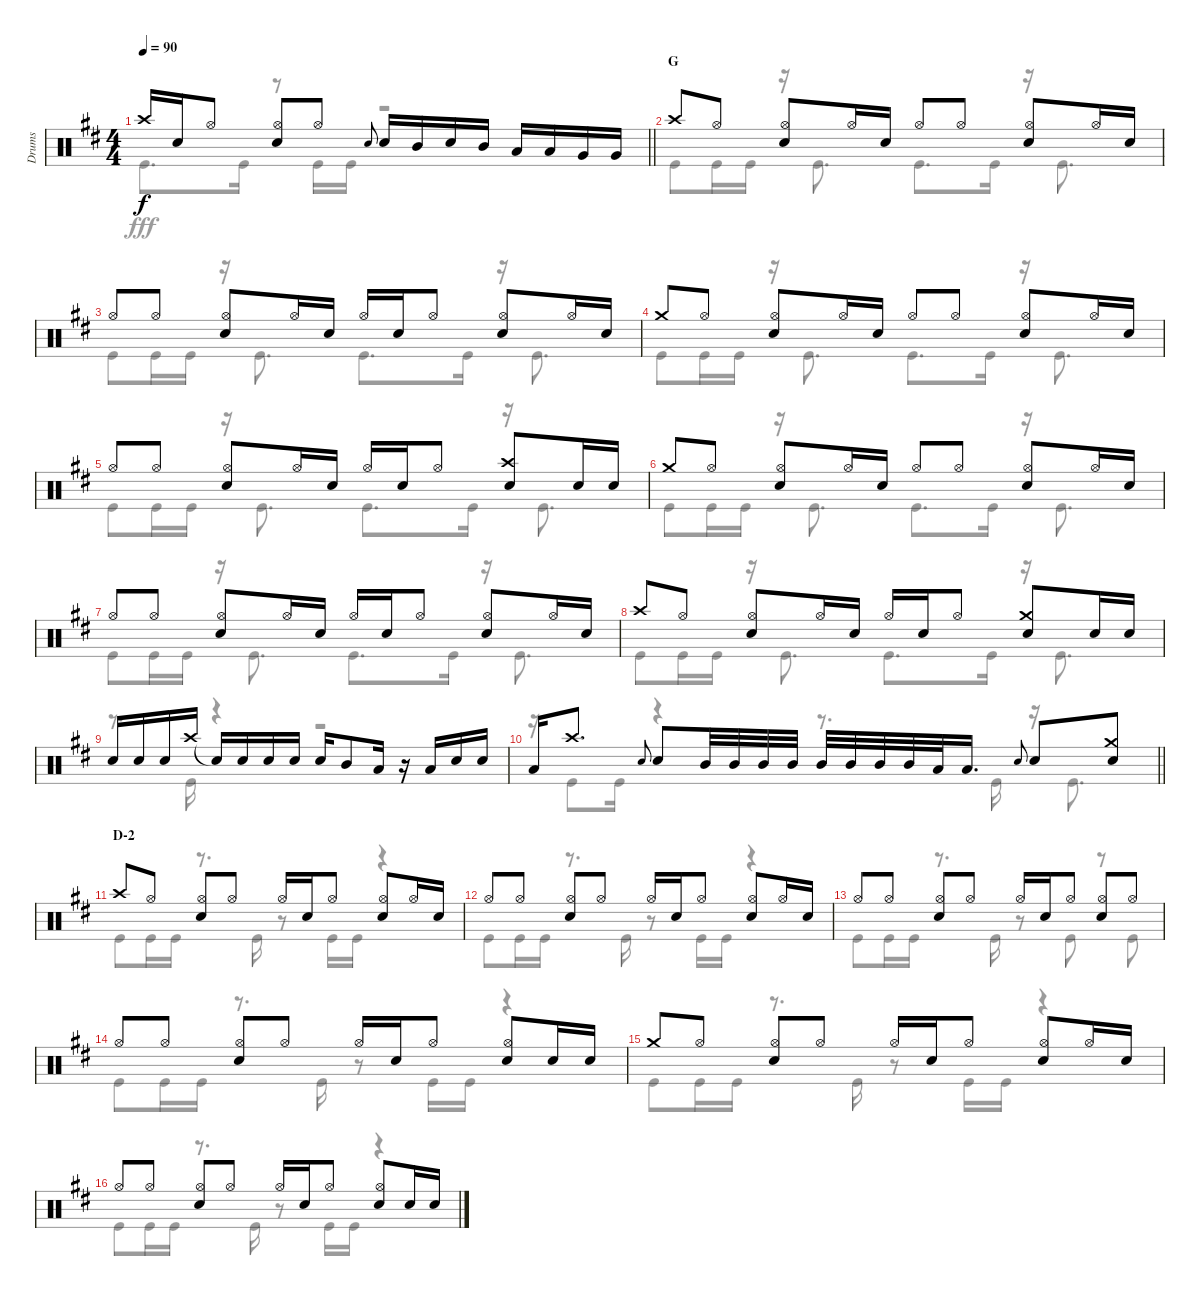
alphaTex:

\track ("Drums" "Drums") {instrument percussion}
\staff {score}
\articulation defaults
\voice
\ts (4 4)
\tempo 90
\clef neutral
\barLineRight lightlight
\ks d "Crash high (hit)".16{dy f} "Snare (hit) 2".16 "Hi-Hat (open)".8
("Hi-Hat (open)" "Snare (hit) 2").8 "Hi-Hat (open)".8 "Snare (hit) 2".8{gr onbeat} "Snare (hit) 2".16 "Mid Tom (hit)".16 "Snare (hit) 2".16 "Mid Tom (hit)".16 "Low Tom (hit)".16 "Low Tom (hit)".16 "Very Low Tom (hit)".16 "Very Low Tom (hit)".16 |
\section ("" "G")
"Crash high (hit)".8 "Hi-Hat (open)".8 ("Hi-Hat (open)" "Snare (hit) 2").8 "Hi-Hat (open)".16 "Snare (hit) 2".16 "Hi-Hat (open)".8 "Hi-Hat (open)".8 ("Hi-Hat (open)" "Snare (hit) 2").8 "Hi-Hat (open)".16 "Snare (hit) 2".16 |
"Hi-Hat (open)".8 "Hi-Hat (open)".8 ("Hi-Hat (open)" "Snare (hit) 2").8 "Hi-Hat (open)".16 "Snare (hit) 2".16 "Hi-Hat (open)".16 "Snare (hit) 2".16 "Hi-Hat (open)".8 ("Hi-Hat (open)" "Snare (hit) 2").8 "Hi-Hat (open)".16 "Snare (hit) 2".16 |
"Crash medium (hit)".8 "Hi-Hat (open)".8 ("Hi-Hat (open)" "Snare (hit) 2").8 "Hi-Hat (open)".16 "Snare (hit) 2".16 "Hi-Hat (open)".8 "Hi-Hat (open)".8 ("Hi-Hat (open)" "Snare (hit) 2").8 "Hi-Hat (open)".16 "Snare (hit) 2".16 |
"Hi-Hat (open)".8 "Hi-Hat (open)".8 ("Hi-Hat (open)" "Snare (hit) 2").8 "Hi-Hat (open)".16 "Snare (hit) 2".16 "Hi-Hat (open)".16 "Snare (hit) 2".16 "Hi-Hat (open)".8 ("Crash high (hit)" "Snare (hit) 2").8 "Snare (hit) 2".16 "Snare (hit) 2".16 |
"Crash medium (hit)".8 "Hi-Hat (open)".8 ("Hi-Hat (open)" "Snare (hit) 2").8 "Hi-Hat (open)".16 "Snare (hit) 2".16 "Hi-Hat (open)".8 "Hi-Hat (open)".8 ("Hi-Hat (open)" "Snare (hit) 2").8 "Hi-Hat (open)".16 "Snare (hit) 2".16 |
"Hi-Hat (open)".8 "Hi-Hat (open)".8 ("Hi-Hat (open)" "Snare (hit) 2").8 "Hi-Hat (open)".16 "Snare (hit) 2".16 "Hi-Hat (open)".16 "Snare (hit) 2".16 "Hi-Hat (open)".8 ("Hi-Hat (open)" "Snare (hit) 2").8 "Hi-Hat (open)".16 "Snare (hit) 2".16 |
"Crash high (hit)".8 "Hi-Hat (open)".8 ("Hi-Hat (open)" "Snare (hit) 2").8 "Hi-Hat (open)".16 "Snare (hit) 2".16 "Hi-Hat (open)".16 "Snare (hit) 2".16 "Hi-Hat (open)".8 ("Crash medium (hit)" "Snare (hit) 2").8 "Snare (hit) 2".16 "Snare (hit) 2".16 |
"Snare (hit) 2".16 "Snare (hit) 2".16 "Snare (hit) 2".16 "Crash high (hit)".16 "Snare (hit)"{t}.16 "Snare (hit) 2".16 "Snare (hit) 2".16 "Snare (hit) 2".16 "Snare (hit) 2".16 "Mid Tom (hit)".8 "Low Tom (hit)".16 r.16 "Low Tom (hit)".16 "Snare (hit) 2".16 "Snare (hit) 2".16 |
\barLineRight lightlight "Low Tom (hit)".16 "Crash high (hit)".8{d} "Snare (hit) 2".8{gr onbeat} "Snare (hit) 2".8 "Mid Tom (hit)".32 "Mid Tom (hit)".32 "Mid Tom (hit)".32 "Mid Tom (hit)".32 "Mid Tom (hit)".32 "Mid Tom (hit)".32 "Mid Tom (hit)".32 "Mid Tom (hit)".32 "Low Tom (hit)".32 "Low Tom (hit)".16{d} "Snare (hit) 2".8{gr onbeat} "Snare (hit) 2".8
("Crash medium (hit)" "Snare (hit) 2").8 |
\section ("" "D-2")
"Crash high (hit)".8 "Hi-Hat (open)".8 ("Hi-Hat (open)" "Snare (hit) 2").8 "Hi-Hat (open)".8 "Hi-Hat (open)".16 "Snare (hit) 2".16 "Hi-Hat (open)".8 ("Hi-Hat (open)" "Snare (hit) 2").8 "Hi-Hat (open)".16 "Snare (hit) 2".16 |
"Hi-Hat (open)".8 "Hi-Hat (open)".8 ("Hi-Hat (open)" "Snare (hit) 2").8 "Hi-Hat (open)".8 "Hi-Hat (open)".16 "Snare (hit) 2".16 "Hi-Hat (open)".8 ("Hi-Hat (open)" "Snare (hit) 2").8 "Hi-Hat (open)".16 "Snare (hit) 2".16 |
"Hi-Hat (open)".8 "Hi-Hat (open)".8 ("Hi-Hat (open)" "Snare (hit) 2").8 "Hi-Hat (open)".8 "Hi-Hat (open)".16 "Snare (hit) 2".16 "Hi-Hat (open)".8 ("Hi-Hat (open)" "Snare (hit) 2").8 "Hi-Hat (open)".8 |
"Hi-Hat (open)".8 "Hi-Hat (open)".8 ("Hi-Hat (open)" "Snare (hit) 2").8 "Hi-Hat (open)".8 "Hi-Hat (open)".16 "Snare (hit) 2".16 "Hi-Hat (open)".8 ("Hi-Hat (open)" "Snare (hit) 2").8 "Snare (hit) 2".16 "Snare (hit) 2".16 |
"Crash medium (hit)".8 "Hi-Hat (open)".8 ("Hi-Hat (open)" "Snare (hit) 2").8 "Hi-Hat (open)".8 "Hi-Hat (open)".16 "Snare (hit) 2".16 "Hi-Hat (open)".8 ("Hi-Hat (open)" "Snare (hit) 2").8 "Hi-Hat (open)".16 "Snare (hit) 2".16 |
"Hi-Hat (open)".8 "Hi-Hat (open)".8 ("Hi-Hat (open)" "Snare (hit) 2").8 "Hi-Hat (open)".8 "Hi-Hat (open)".16 "Snare (hit) 2".16 "Hi-Hat (open)".8 ("Hi-Hat (open)" "Snare (hit) 2").8 "Snare (hit) 2".16 "Snare (hit) 2".16
\voice
\clef neutral
\ottava regular
\simile none
\barLineRight lightlight
\ks d "Kick (hit)".8{d dy fff} "Kick (hit)".16
r.8 "Kick (hit)".16 "Kick (hit)".16 r.2 |
"Kick (hit)".8 "Kick (hit)".16 "Kick (hit)".16 r.16 "Kick (hit)".8{d} "Kick (hit)".8{d} "Kick (hit)".16 r.16 "Kick (hit)".8{d} |
"Kick (hit)".8 "Kick (hit)".16 "Kick (hit)".16 r.16 "Kick (hit)".8{d} "Kick (hit)".8{d} "Kick (hit)".16 r.16 "Kick (hit)".8{d} |
"Kick (hit)".8 "Kick (hit)".16 "Kick (hit)".16 r.16 "Kick (hit)".8{d} "Kick (hit)".8{d} "Kick (hit)".16 r.16 "Kick (hit)".8{d} |
"Kick (hit)".8 "Kick (hit)".16 "Kick (hit)".16 r.16 "Kick (hit)".8{d} "Kick (hit)".8{d} "Kick (hit)".16 r.16 "Kick (hit)".8{d} |
"Kick (hit)".8 "Kick (hit)".16 "Kick (hit)".16 r.16 "Kick (hit)".8{d} "Kick (hit)".8{d} "Kick (hit)".16 r.16 "Kick (hit)".8{d} |
"Kick (hit)".8 "Kick (hit)".16 "Kick (hit)".16 r.16 "Kick (hit)".8{d} "Kick (hit)".8{d} "Kick (hit)".16 r.16 "Kick (hit)".8{d} |
"Kick (hit)".8 "Kick (hit)".16 "Kick (hit)".16 r.16 "Kick (hit)".8{d} "Kick (hit)".8{d} "Kick (hit)".16 r.16 "Kick (hit)".8{d} |
r.8{d} "Kick (hit)".16 r.4 r.2 |
\barLineRight lightlight
r.16 "Kick (hit)".8 "Kick (hit)".16 r.4 r.8{d} "Kick (hit)".16 r.16 "Kick (hit)".8{d} |
"Kick (hit)".8 "Kick (hit)".16 "Kick (hit)".16 r.8{d} "Kick (hit)".16 r.8 "Kick (hit)".16 "Kick (hit)".16 r.4 |
"Kick (hit)".8 "Kick (hit)".16 "Kick (hit)".16 r.8{d} "Kick (hit)".16 r.8 "Kick (hit)".16 "Kick (hit)".16 r.4 |
"Kick (hit)".8 "Kick (hit)".16 "Kick (hit)".16 r.8{d} "Kick (hit)".16 r.8 "Kick (hit)".8 r.8 "Kick (hit)".8 |
"Kick (hit)".8 "Kick (hit)".16 "Kick (hit)".16 r.8{d} "Kick (hit)".16 r.8 "Kick (hit)".16 "Kick (hit)".16 r.4 |
"Kick (hit)".8 "Kick (hit)".16 "Kick (hit)".16 r.8{d} "Kick (hit)".16 r.8 "Kick (hit)".16 "Kick (hit)".16 r.4 |
"Kick (hit)".8 "Kick (hit)".16 "Kick (hit)".16 r.8{d} "Kick (hit)".16 r.8 "Kick (hit)".16 "Kick (hit)".16 r.4
